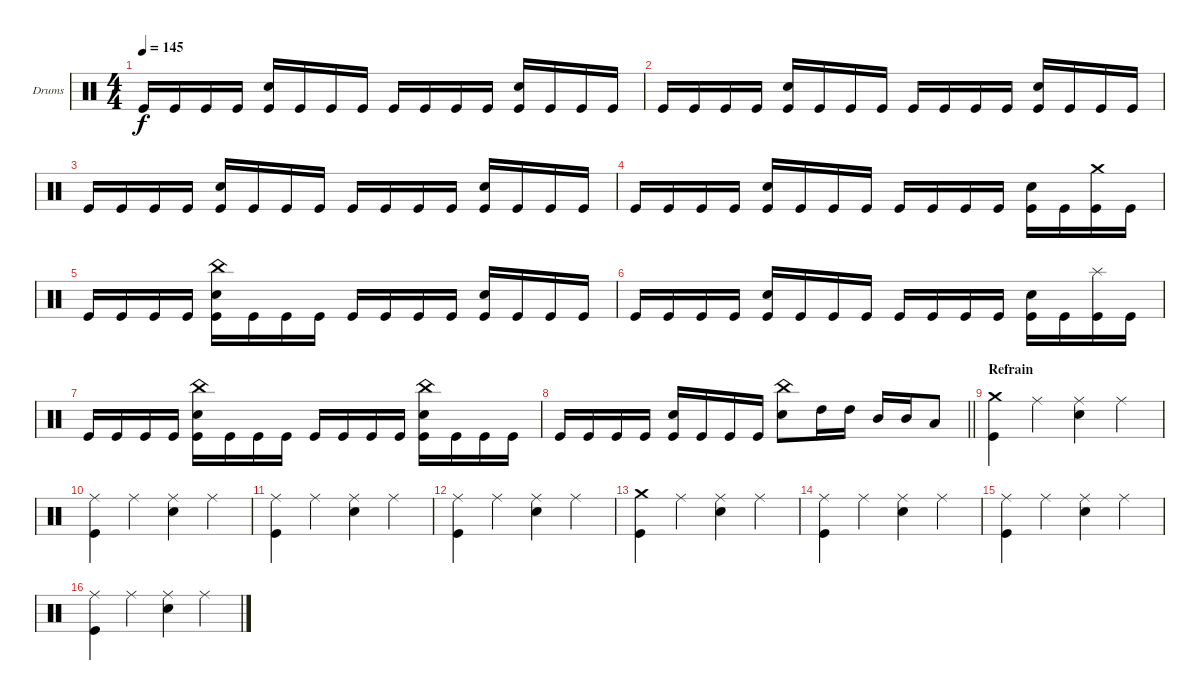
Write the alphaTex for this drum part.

\bracketExtendMode groupsimilarinstruments
\firstSystemTrackNameOrientation horizontal
\otherSystemsTrackNameOrientation horizontal
\track ("Drumkit" "Drums") {instrument percussion}
\staff {score}
\articulation defaults
\ts (4 4)
\tempo 145
\clef neutral
\ks c "Kick (hit)".16{dy f} "Kick (hit)".16 "Kick (hit)".16 "Kick (hit)".16
("Snare (hit) 2" "Kick (hit)").16 "Kick (hit)".16 "Kick (hit)".16 "Kick (hit)".16 "Kick (hit)".16 "Kick (hit)".16 "Kick (hit)".16 "Kick (hit)".16 ("Snare (hit) 2" "Kick (hit)").16 "Kick (hit)".16 "Kick (hit)".16 "Kick (hit)".16 |
"Kick (hit)".16 "Kick (hit)".16 "Kick (hit)".16 "Kick (hit)".16 ("Snare (hit) 2" "Kick (hit)").16 "Kick (hit)".16 "Kick (hit)".16 "Kick (hit)".16 "Kick (hit)".16 "Kick (hit)".16 "Kick (hit)".16 "Kick (hit)".16 ("Snare (hit) 2" "Kick (hit)").16 "Kick (hit)".16 "Kick (hit)".16 "Kick (hit)".16 |
"Kick (hit)".16 "Kick (hit)".16 "Kick (hit)".16 "Kick (hit)".16 ("Snare (hit) 2" "Kick (hit)").16 "Kick (hit)".16 "Kick (hit)".16 "Kick (hit)".16 "Kick (hit)".16 "Kick (hit)".16 "Kick (hit)".16 "Kick (hit)".16 ("Snare (hit) 2" "Kick (hit)").16 "Kick (hit)".16 "Kick (hit)".16 "Kick (hit)".16 |
"Kick (hit)".16 "Kick (hit)".16 "Kick (hit)".16 "Kick (hit)".16 ("Snare (hit) 2" "Kick (hit)").16 "Kick (hit)".16 "Kick (hit)".16 "Kick (hit)".16 "Kick (hit)".16 "Kick (hit)".16 "Kick (hit)".16 "Kick (hit)".16 ("Snare (hit) 2" "Kick (hit)").16 "Kick (hit)".16 ("Crash medium (hit)" "Kick (hit)").16 "Kick (hit)".16 |
"Kick (hit)".16 "Kick (hit)".16 "Kick (hit)".16 "Kick (hit)".16 ("China (hit)" "Snare (hit) 2" "Kick (hit)").16 "Kick (hit)".16 "Kick (hit)".16 "Kick (hit)".16 "Kick (hit)".16 "Kick (hit)".16 "Kick (hit)".16 "Kick (hit)".16 ("Snare (hit) 2" "Kick (hit)").16 "Kick (hit)".16 "Kick (hit)".16 "Kick (hit)".16 |
"Kick (hit)".16 "Kick (hit)".16 "Kick (hit)".16 "Kick (hit)".16 ("Snare (hit) 2" "Kick (hit)").16 "Kick (hit)".16 "Kick (hit)".16 "Kick (hit)".16 "Kick (hit)".16 "Kick (hit)".16 "Kick (hit)".16 "Kick (hit)".16 ("Snare (hit) 2" "Kick (hit)").16 "Kick (hit)".16 ("Splash (hit)" "Kick (hit)").16 "Kick (hit)".16 |
"Kick (hit)".16 "Kick (hit)".16 "Kick (hit)".16 "Kick (hit)".16 ("China (hit)" "Snare (hit) 2" "Kick (hit)").16 "Kick (hit)".16 "Kick (hit)".16 "Kick (hit)".16 "Kick (hit)".16 "Kick (hit)".16 "Kick (hit)".16 "Kick (hit)".16 ("China (hit)" "Snare (hit) 2" "Kick (hit)").16 "Kick (hit)".16 "Kick (hit)".16 "Kick (hit)".16 |
\barLineRight lightlight "Kick (hit)".16 "Kick (hit)".16 "Kick (hit)".16 "Kick (hit)".16
("Snare (hit) 2" "Kick (hit)").16 "Kick (hit)".16 "Kick (hit)".16 "Kick (hit)".16 ("China (hit)" "Snare (hit) 2").8 "High Tom (hit)".16 "High Tom (hit)".16 "Mid Tom (hit)".16 "Mid Tom (hit)".16 "Low Tom (hit)".8 |
\section ("" "Refrain")
("Crash medium (hit)" "Kick (hit)").4 "Ride (middle)".4 ("Ride (middle)" "Snare (hit) 2").4 "Ride (middle)".4 |
("Ride (middle)" "Kick (hit)").4 "Ride (middle)".4 ("Ride (middle)" "Snare (hit) 2").4 "Ride (middle)".4 |
("Ride (middle)" "Kick (hit)").4 "Ride (middle)".4 ("Ride (middle)" "Snare (hit) 2").4 "Ride (middle)".4 |
("Ride (middle)" "Kick (hit)").4 "Ride (middle)".4 ("Ride (middle)" "Snare (hit) 2").4 "Ride (middle)".4 |
("Crash medium (hit)" "Kick (hit)").4 "Ride (middle)".4 ("Ride (middle)" "Snare (hit) 2").4 "Ride (middle)".4 |
("Ride (middle)" "Kick (hit)").4 "Ride (middle)".4 ("Ride (middle)" "Snare (hit) 2").4 "Ride (middle)".4 |
("Ride (middle)" "Kick (hit)").4 "Ride (middle)".4 ("Ride (middle)" "Snare (hit) 2").4 "Ride (middle)".4 |
("Ride (middle)" "Kick (hit)").4 "Ride (middle)".4 ("Ride (middle)" "Snare (hit) 2").4 "Ride (middle)".4
